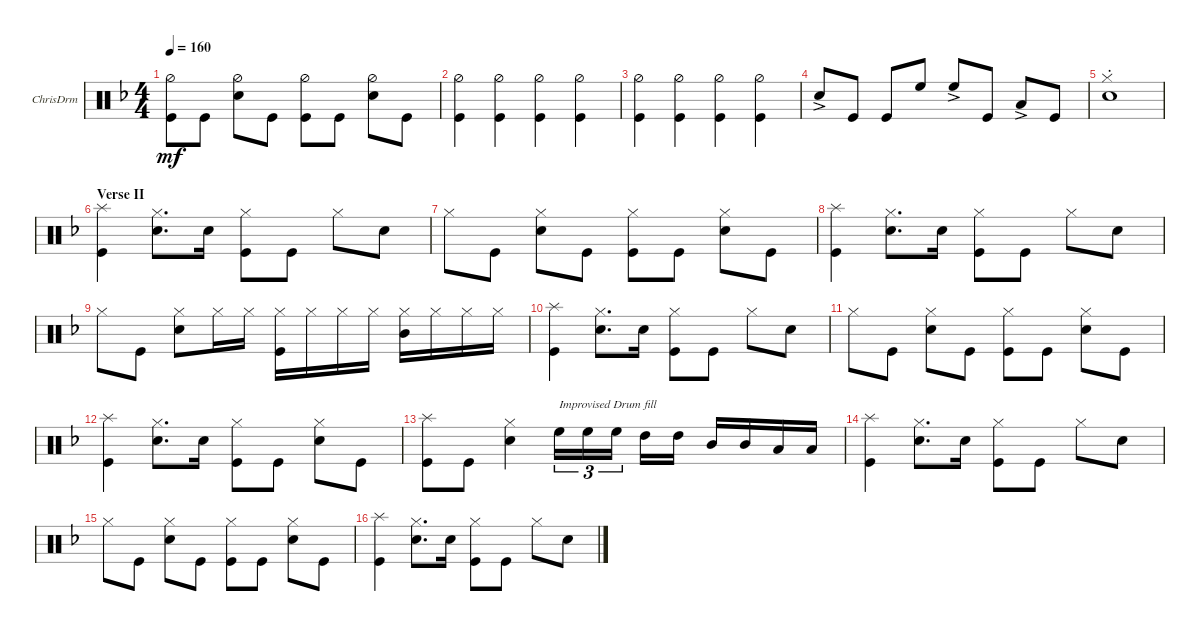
\defaultSystemsLayout 4
\bracketExtendMode groupsimilarinstruments
\firstSystemTrackNameOrientation horizontal
\otherSystemsTrackNameOrientation horizontal
\track ("Drumkit" "ChrisDrm") {instrument percussion}
\staff {score}
\articulation defaults
\ts (4 4)
\tempo 160
\clef neutral
\ks dminor
("Kick (hit)" "Hi-Hat (half)").8{dy mf} "Kick (hit)".8 ("Snare (hit) 2" "Hi-Hat (half)").8 "Kick (hit)".8 ("Kick (hit)" "Hi-Hat (half)").8 "Kick (hit)".8 ("Snare (hit) 2" "Hi-Hat (half)").8 "Kick (hit)".8 |
("Kick (hit)" "Hi-Hat (half)").4 ("Kick (hit)" "Hi-Hat (half)").4 ("Kick (hit)" "Hi-Hat (half)").4 ("Kick (hit)" "Hi-Hat (half)").4 |
("Kick (hit)" "Hi-Hat (half)").4 ("Kick (hit)" "Hi-Hat (half)").4 ("Kick (hit)" "Hi-Hat (half)").4 ("Kick (hit)" "Hi-Hat (half)").4 |
"Snare (hit) 2"{ac}.8 "Kick (hit)".8 "Kick (hit)".8 "High Floor Tom (hit)".8 "High Floor Tom (hit)"{ac}.8 "Kick (hit)".8 "Low Tom (hit)"{ac}.8 "Kick (hit)".8 |
("Snare (hit) 2"{st} "Hi-Hat (closed)").1 |
\section ("" "Verse II")
("Kick (hit)" "Splash (hit)").4 ("Snare (hit) 2" "Hi-Hat (closed)").8{d} "Snare (hit) 2".16 ("Kick (hit)" "Hi-Hat (closed)").8 "Kick (hit)".8 "Hi-Hat (closed)".8 "Snare (hit) 2".8 |
"Hi-Hat (closed)".8 "Kick (hit)".8 ("Snare (hit) 2" "Hi-Hat (closed)").8 "Kick (hit)".8 ("Kick (hit)" "Hi-Hat (closed)").8 "Kick (hit)".8 ("Snare (hit) 2" "Hi-Hat (closed)").8 "Kick (hit)".8 |
("Kick (hit)" "Splash (hit)").4 ("Snare (hit) 2" "Hi-Hat (closed)").8{d} "Snare (hit) 2".16 ("Kick (hit)" "Hi-Hat (closed)").8 "Kick (hit)".8 "Hi-Hat (closed)".8 "Snare (hit) 2".8 |
"Hi-Hat (closed)".8 "Kick (hit)".8 ("Snare (hit) 2" "Hi-Hat (closed)").8 "Hi-Hat (closed)".16 "Hi-Hat (closed)".16 ("Kick (hit)" "Hi-Hat (closed)").16 "Hi-Hat (closed)".16 "Hi-Hat (closed)".16 "Hi-Hat (closed)".16 ("Hi-Hat (closed)" "Mid Tom (hit)").16 "Hi-Hat (closed)".16 "Hi-Hat (closed)".16 "Hi-Hat (closed)".16 |
("Kick (hit)" "Splash (hit)").4 ("Snare (hit) 2" "Hi-Hat (closed)").8{d} "Snare (hit) 2".16 ("Kick (hit)" "Hi-Hat (closed)").8 "Kick (hit)".8 "Hi-Hat (closed)".8 "Snare (hit) 2".8 |
"Hi-Hat (closed)".8 "Kick (hit)".8 ("Snare (hit) 2" "Hi-Hat (closed)").8 "Kick (hit)".8 ("Kick (hit)" "Hi-Hat (closed)").8 "Kick (hit)".8 ("Snare (hit) 2" "Hi-Hat (closed)").8 "Kick (hit)".8 |
("Kick (hit)" "Splash (hit)").4 ("Snare (hit) 2" "Hi-Hat (closed)").8{d} "Snare (hit) 2".16 ("Kick (hit)" "Hi-Hat (closed)").8 "Kick (hit)".8 ("Hi-Hat (closed)" "Snare (hit) 2").8 "Kick (hit)".8 |
("Kick (hit)" "Splash (hit)").8 "Kick (hit)".8 ("Snare (hit) 2" "Hi-Hat (closed)").4 "High Floor Tom (hit)".16{tu (3 2) txt "Improvised Drum fill"} "High Floor Tom (hit)".16{tu (3 2)} "High Floor Tom (hit)".16{tu (3 2)} "High Tom (hit)".16 "High Tom (hit)".16 "Mid Tom (hit)".16 "Mid Tom (hit)".16 "Low Tom (hit)".16 "Low Tom (hit)".16 |
("Kick (hit)" "Splash (hit)").4 ("Snare (hit) 2" "Hi-Hat (closed)").8{d} "Snare (hit) 2".16 ("Kick (hit)" "Hi-Hat (closed)").8 "Kick (hit)".8 "Hi-Hat (closed)".8 "Snare (hit) 2".8 |
"Hi-Hat (closed)".8 "Kick (hit)".8 ("Snare (hit) 2" "Hi-Hat (closed)").8 "Kick (hit)".8 ("Kick (hit)" "Hi-Hat (closed)").8 "Kick (hit)".8 ("Snare (hit) 2" "Hi-Hat (closed)").8 "Kick (hit)".8 |
("Kick (hit)" "Splash (hit)").4 ("Snare (hit) 2" "Hi-Hat (closed)").8{d} "Snare (hit) 2".16 ("Kick (hit)" "Hi-Hat (closed)").8 "Kick (hit)".8 "Hi-Hat (closed)".8 "Snare (hit) 2".8
